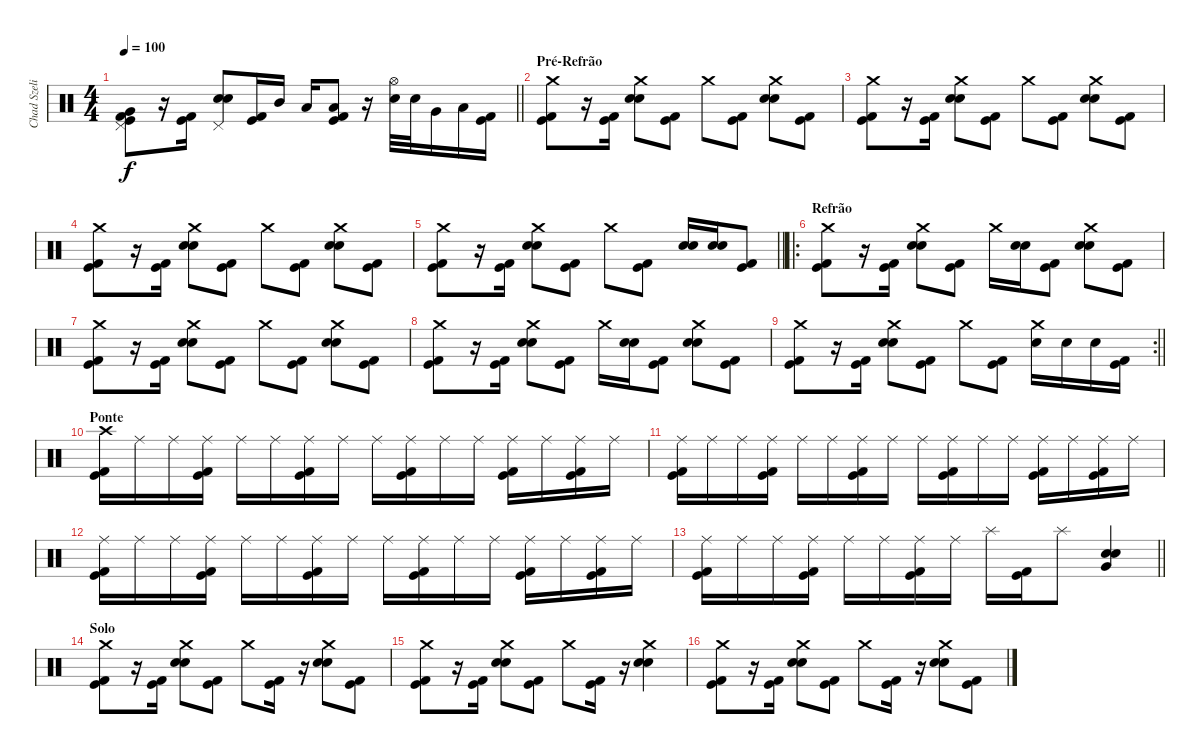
\track ("Chad Szeliga" "Chad Szeli") {instrument percussion}
\staff {score}
\articulation defaults
\ts (4 4)
\tempo 100
\clef neutral
\barLineRight lightlight
\ks c
("Kick (hit) 2" "Kick (hit)" "Very Low Tom (hit)" "Pedal Hi-Hat (hit)").8{dy f} r.16 ("Kick (hit) 2" "Kick (hit)").16{beam Down} ("Snare (hit) 2" "Snare (hit) 2" "Pedal Hi-Hat (hit)").8 ("Kick (hit) 2" "Kick (hit)").16 "Mid Tom (hit)".16 "Low Tom (hit)".16 ("Kick (hit) 2" "Kick (hit)" "Low Tom (hit)").8 r.16 ("Snare (hit) 2" "Hi-Hat (open)").32 "Snare (hit) 2".32 "Very Low Tom (hit)".16 "Low Tom (hit)".16 ("Kick (hit) 2" "Kick (hit)").16 |
\section ("" "Pré-Refrão")
("Crash medium (hit)" "Kick (hit) 2" "Kick (hit)").8 r.16 ("Kick (hit) 2" "Kick (hit)").16{beam Down} ("Crash medium (hit)" "Snare (hit) 2" "Snare (hit) 2").8 ("Kick (hit) 2" "Kick (hit)").8 "Crash medium (hit)".8 ("Kick (hit) 2" "Kick (hit)").8 ("Crash medium (hit)" "Snare (hit) 2" "Snare (hit) 2").8 ("Kick (hit) 2" "Kick (hit)").8 |
("Crash medium (hit)" "Kick (hit) 2" "Kick (hit)").8 r.16 ("Kick (hit) 2" "Kick (hit)").16{beam Down} ("Crash medium (hit)" "Snare (hit) 2" "Snare (hit) 2").8 ("Kick (hit) 2" "Kick (hit)").8 "Crash medium (hit)".8 ("Kick (hit) 2" "Kick (hit)").8 ("Crash medium (hit)" "Snare (hit) 2" "Snare (hit) 2").8 ("Kick (hit) 2" "Kick (hit)").8 |
("Crash medium (hit)" "Kick (hit) 2" "Kick (hit)").8 r.16 ("Kick (hit) 2" "Kick (hit)").16{beam Down} ("Crash medium (hit)" "Snare (hit) 2" "Snare (hit) 2").8 ("Kick (hit) 2" "Kick (hit)").8 "Crash medium (hit)".8 ("Kick (hit) 2" "Kick (hit)").8 ("Crash medium (hit)" "Snare (hit) 2" "Snare (hit) 2").8 ("Kick (hit) 2" "Kick (hit)").8 |
\barLineRight lightlight
("Crash medium (hit)" "Kick (hit) 2" "Kick (hit)").8 r.16 ("Kick (hit) 2" "Kick (hit)").16{beam Down} ("Crash medium (hit)" "Snare (hit) 2" "Snare (hit) 2").8 ("Kick (hit) 2" "Kick (hit)").8 "Crash medium (hit)".8 ("Kick (hit) 2" "Kick (hit)").8 ("Snare (hit) 2" "Snare (hit) 2").16 ("Snare (hit) 2" "Snare (hit) 2").16 ("Kick (hit) 2" "Kick (hit)").8 |
\ro
\section ("" "Refrão")
("Crash medium (hit)" "Kick (hit) 2" "Kick (hit)").8 r.16 ("Kick (hit) 2" "Kick (hit)").16{beam Down} ("Crash medium (hit)" "Snare (hit) 2" "Snare (hit) 2").8 ("Kick (hit) 2" "Kick (hit)").8 "Crash medium (hit)".16 ("Snare (hit) 2" "Snare (hit) 2").16 ("Kick (hit) 2" "Kick (hit)").8 ("Crash medium (hit)" "Snare (hit) 2" "Snare (hit) 2").8 ("Kick (hit) 2" "Kick (hit)").8 |
("Crash medium (hit)" "Kick (hit) 2" "Kick (hit)").8 r.16 ("Kick (hit) 2" "Kick (hit)").16{beam Down} ("Crash medium (hit)" "Snare (hit) 2" "Snare (hit) 2").8 ("Kick (hit) 2" "Kick (hit)").8 "Crash medium (hit)".8 ("Kick (hit) 2" "Kick (hit)").8 ("Crash medium (hit)" "Snare (hit) 2" "Snare (hit) 2").8 ("Kick (hit) 2" "Kick (hit)").8 |
("Crash medium (hit)" "Kick (hit) 2" "Kick (hit)").8 r.16 ("Kick (hit) 2" "Kick (hit)").16{beam Down} ("Crash medium (hit)" "Snare (hit) 2" "Snare (hit) 2").8 ("Kick (hit) 2" "Kick (hit)").8 "Crash medium (hit)".16 ("Snare (hit) 2" "Snare (hit) 2").16 ("Kick (hit) 2" "Kick (hit)").8 ("Crash medium (hit)" "Snare (hit) 2" "Snare (hit) 2").8 ("Kick (hit) 2" "Kick (hit)").8 |
\rc 2
\barLineRight lightlight
("Crash medium (hit)" "Kick (hit) 2" "Kick (hit)").8 r.16 ("Kick (hit) 2" "Kick (hit)").16{beam Down} ("Crash medium (hit)" "Snare (hit) 2" "Snare (hit) 2").8 ("Kick (hit) 2" "Kick (hit)").8 "Crash medium (hit)".8 ("Kick (hit) 2" "Kick (hit)").8 ("Crash medium (hit)" "Snare (hit) 2").16 "Snare (hit) 2".16 "Snare (hit) 2".16 ("Kick (hit) 2" "Kick (hit)").16 |
\section ("" "Ponte")
("Crash high (hit)" "Kick (hit) 2" "Kick (hit)").16 "Ride (middle)".16 "Ride (middle)".16 ("Ride (middle)" "Kick (hit) 2" "Kick (hit)").16 "Ride (middle)".16 "Ride (middle)".16 ("Ride (middle)" "Kick (hit) 2" "Kick (hit)").16 "Ride (middle)".16 "Ride (middle)".16 ("Ride (middle)" "Kick (hit) 2" "Kick (hit)").16 "Ride (middle)".16 "Ride (middle)".16 ("Ride (middle)" "Kick (hit) 2" "Kick (hit)").16 "Ride (middle)".16 ("Ride (middle)" "Kick (hit) 2" "Kick (hit)").16 "Ride (middle)".16 |
("Ride (middle)" "Kick (hit) 2" "Kick (hit)").16 "Ride (middle)".16 "Ride (middle)".16 ("Ride (middle)" "Kick (hit) 2" "Kick (hit)").16 "Ride (middle)".16 "Ride (middle)".16 ("Ride (middle)" "Kick (hit) 2" "Kick (hit)").16 "Ride (middle)".16 "Ride (middle)".16 ("Ride (middle)" "Kick (hit) 2" "Kick (hit)").16 "Ride (middle)".16 "Ride (middle)".16 ("Ride (middle)" "Kick (hit) 2" "Kick (hit)").16 "Ride (middle)".16 ("Ride (middle)" "Kick (hit) 2" "Kick (hit)").16 "Ride (middle)".16 |
("Ride (middle)" "Kick (hit) 2" "Kick (hit)").16 "Ride (middle)".16 "Ride (middle)".16 ("Ride (middle)" "Kick (hit) 2" "Kick (hit)").16 "Ride (middle)".16 "Ride (middle)".16 ("Ride (middle)" "Kick (hit) 2" "Kick (hit)").16 "Ride (middle)".16 "Ride (middle)".16 ("Ride (middle)" "Kick (hit) 2" "Kick (hit)").16 "Ride (middle)".16 "Ride (middle)".16 ("Ride (middle)" "Kick (hit) 2" "Kick (hit)").16 "Ride (middle)".16 ("Ride (middle)" "Kick (hit) 2" "Kick (hit)").16 "Ride (middle)".16 |
\barLineRight lightlight
("Ride (middle)" "Kick (hit) 2" "Kick (hit)").16 "Ride (middle)".16 "Ride (middle)".16 ("Ride (middle)" "Kick (hit) 2" "Kick (hit)").16 "Ride (middle)".16 "Ride (middle)".16 ("Ride (middle)" "Kick (hit) 2" "Kick (hit)").16 "Ride (middle)".16 "Splash (hit)".16 ("Kick (hit) 2" "Kick (hit)").16 "Splash (hit)".8 ("Snare (hit) 2" "Snare (hit) 2" "Very Low Tom (hit)").4 |
\section ("" "Solo")
("Crash medium (hit)" "Kick (hit) 2" "Kick (hit)").8 r.16 ("Kick (hit) 2" "Kick (hit)").16{beam Down} ("Crash medium (hit)" "Snare (hit) 2" "Snare (hit) 2").8 ("Kick (hit) 2" "Kick (hit)").8 "Crash medium (hit)".8 ("Kick (hit) 2" "Kick (hit)").16 r.16 ("Crash medium (hit)" "Snare (hit) 2" "Snare (hit) 2").8 ("Kick (hit) 2" "Kick (hit)").8 |
("Crash medium (hit)" "Kick (hit) 2" "Kick (hit)").8 r.16 ("Kick (hit) 2" "Kick (hit)").16 ("Crash medium (hit)" "Snare (hit) 2" "Snare (hit) 2").8 ("Kick (hit) 2" "Kick (hit)").8 "Crash medium (hit)".8 ("Kick (hit) 2" "Kick (hit)").16 r.16 ("Crash medium (hit)" "Snare (hit) 2" "Snare (hit) 2").4 |
("Crash medium (hit)" "Kick (hit) 2" "Kick (hit)").8 r.16 ("Kick (hit) 2" "Kick (hit)").16{beam Down} ("Crash medium (hit)" "Snare (hit) 2" "Snare (hit) 2").8 ("Kick (hit) 2" "Kick (hit)").8 "Crash medium (hit)".8 ("Kick (hit) 2" "Kick (hit)").16 r.16 ("Crash medium (hit)" "Snare (hit) 2" "Snare (hit) 2").8 ("Kick (hit) 2" "Kick (hit)").8
